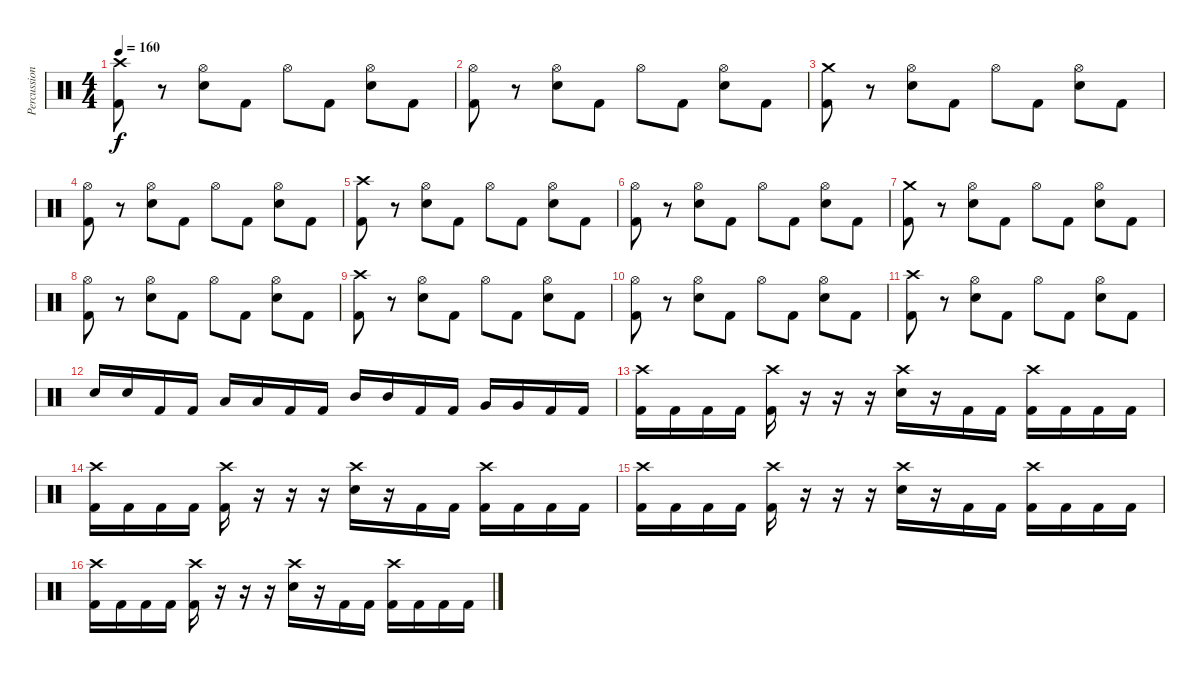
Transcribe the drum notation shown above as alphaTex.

\track ("Percussion" "Percussion") {instrument percussion}
\staff {score}
\articulation defaults
\ts (4 4)
\tempo 160
\clef neutral
\ks c
("Crash high (hit)" "Kick (hit) 2").8{dy f} r.8 ("Hi-Hat (open)" "Electric Snare (hit)").8 "Kick (hit) 2".8 "Hi-Hat (open)".8 "Kick (hit) 2".8 ("Hi-Hat (open)" "Electric Snare (hit)").8 "Kick (hit) 2".8 |
("Hi-Hat (open)" "Kick (hit) 2").8 r.8 ("Hi-Hat (open)" "Electric Snare (hit)").8 "Kick (hit) 2".8 "Hi-Hat (open)".8 "Kick (hit) 2".8 ("Hi-Hat (open)" "Electric Snare (hit)").8 "Kick (hit) 2".8 |
("Crash medium (hit)" "Kick (hit) 2").8 r.8 ("Hi-Hat (open)" "Electric Snare (hit)").8 "Kick (hit) 2".8 "Hi-Hat (open)".8 "Kick (hit) 2".8 ("Hi-Hat (open)" "Electric Snare (hit)").8 "Kick (hit) 2".8 |
("Hi-Hat (open)" "Kick (hit) 2").8 r.8 ("Hi-Hat (open)" "Electric Snare (hit)").8 "Kick (hit) 2".8 "Hi-Hat (open)".8 "Kick (hit) 2".8 ("Hi-Hat (open)" "Electric Snare (hit)").8 "Kick (hit) 2".8 |
("Crash high (hit)" "Kick (hit) 2").8 r.8 ("Hi-Hat (open)" "Electric Snare (hit)").8 "Kick (hit) 2".8 "Hi-Hat (open)".8 "Kick (hit) 2".8 ("Hi-Hat (open)" "Electric Snare (hit)").8 "Kick (hit) 2".8 |
("Hi-Hat (open)" "Kick (hit) 2").8 r.8 ("Hi-Hat (open)" "Electric Snare (hit)").8 "Kick (hit) 2".8 "Hi-Hat (open)".8 "Kick (hit) 2".8 ("Hi-Hat (open)" "Electric Snare (hit)").8 "Kick (hit) 2".8 |
("Crash medium (hit)" "Kick (hit) 2").8 r.8 ("Hi-Hat (open)" "Electric Snare (hit)").8 "Kick (hit) 2".8 "Hi-Hat (open)".8 "Kick (hit) 2".8 ("Hi-Hat (open)" "Electric Snare (hit)").8 "Kick (hit) 2".8 |
("Hi-Hat (open)" "Kick (hit) 2").8 r.8 ("Hi-Hat (open)" "Electric Snare (hit)").8 "Kick (hit) 2".8 "Hi-Hat (open)".8 "Kick (hit) 2".8 ("Hi-Hat (open)" "Electric Snare (hit)").8 "Kick (hit) 2".8 |
("Crash high (hit)" "Kick (hit) 2").8 r.8 ("Hi-Hat (open)" "Electric Snare (hit)").8 "Kick (hit) 2".8 "Hi-Hat (open)".8 "Kick (hit) 2".8 ("Hi-Hat (open)" "Electric Snare (hit)").8 "Kick (hit) 2".8 |
("Hi-Hat (open)" "Kick (hit) 2").8 r.8 ("Hi-Hat (open)" "Electric Snare (hit)").8 "Kick (hit) 2".8 "Hi-Hat (open)".8 "Kick (hit) 2".8 ("Hi-Hat (open)" "Electric Snare (hit)").8 "Kick (hit) 2".8 |
("Crash high (hit)" "Kick (hit) 2").8 r.8 ("Hi-Hat (open)" "Electric Snare (hit)").8 "Kick (hit) 2".8 "Hi-Hat (open)".8 "Kick (hit) 2".8 ("Hi-Hat (open)" "Electric Snare (hit)").8 "Kick (hit) 2".8 |
"Electric Snare (hit)".16 "Electric Snare (hit)".16 "Kick (hit) 2".16 "Kick (hit) 2".16 "Low Tom (hit)".16 "Low Tom (hit)".16 "Kick (hit) 2".16 "Kick (hit) 2".16 "Mid Tom (hit)".16 "Mid Tom (hit)".16 "Kick (hit) 2".16 "Kick (hit) 2".16 "Very Low Tom (hit)".16 "Very Low Tom (hit)".16 "Kick (hit) 2".16 "Kick (hit) 2".16 |
("Crash high (hit)" "Kick (hit) 2").16 "Kick (hit) 2".16 "Kick (hit) 2".16 "Kick (hit) 2".16 ("Crash high (hit)" "Kick (hit) 2").16 r.16 r.16 r.16 ("Crash high (hit)" "Electric Snare (hit)").16 r.16 "Kick (hit) 2".16 "Kick (hit) 2".16 ("Crash high (hit)" "Kick (hit) 2").16 "Kick (hit) 2".16 "Kick (hit) 2".16 "Kick (hit) 2".16 |
("Crash high (hit)" "Kick (hit) 2").16 "Kick (hit) 2".16 "Kick (hit) 2".16 "Kick (hit) 2".16 ("Crash high (hit)" "Kick (hit) 2").16 r.16 r.16 r.16 ("Crash high (hit)" "Electric Snare (hit)").16 r.16 "Kick (hit) 2".16 "Kick (hit) 2".16 ("Crash high (hit)" "Kick (hit) 2").16 "Kick (hit) 2".16 "Kick (hit) 2".16 "Kick (hit) 2".16 |
("Crash high (hit)" "Kick (hit) 2").16 "Kick (hit) 2".16 "Kick (hit) 2".16 "Kick (hit) 2".16 ("Crash high (hit)" "Kick (hit) 2").16 r.16 r.16 r.16 ("Crash high (hit)" "Electric Snare (hit)").16 r.16 "Kick (hit) 2".16 "Kick (hit) 2".16 ("Crash high (hit)" "Kick (hit) 2").16 "Kick (hit) 2".16 "Kick (hit) 2".16 "Kick (hit) 2".16 |
("Crash high (hit)" "Kick (hit) 2").16 "Kick (hit) 2".16 "Kick (hit) 2".16 "Kick (hit) 2".16 ("Crash high (hit)" "Kick (hit) 2").16 r.16 r.16 r.16 ("Crash high (hit)" "Electric Snare (hit)").16 r.16 "Kick (hit) 2".16 "Kick (hit) 2".16 ("Crash high (hit)" "Kick (hit) 2").16 "Kick (hit) 2".16 "Kick (hit) 2".16 "Kick (hit) 2".16
